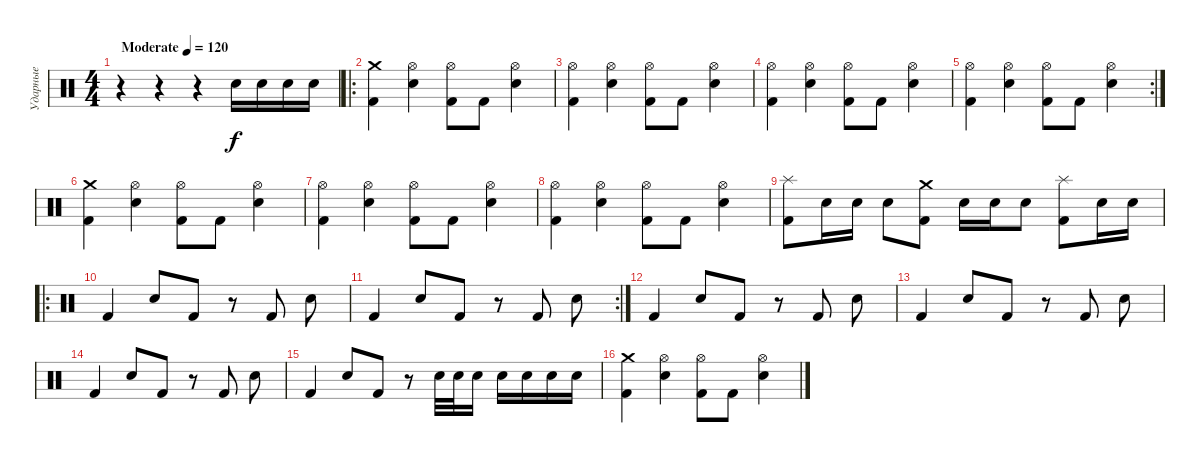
\track ("Ударные" "Ударные") {instrument percussion}
\staff {score}
\articulation defaults
\ts (4 4)
\tempo (120 "Moderate")
\clef neutral
\ks c
r.4{dy f} r.4 r.4 "Electric Snare (hit)".16 "Electric Snare (hit)".16 "Electric Snare (hit)".16 "Electric Snare (hit)".16 |
\ro
("Kick (hit) 2" "Crash medium (hit)").4 ("Electric Snare (hit)" "Hi-Hat (open)").4 ("Kick (hit) 2" "Hi-Hat (open)").8 "Kick (hit) 2".8 ("Electric Snare (hit)" "Hi-Hat (open)").4 |
("Kick (hit) 2" "Hi-Hat (open)").4 ("Electric Snare (hit)" "Hi-Hat (open)").4 ("Kick (hit) 2" "Hi-Hat (open)").8 "Kick (hit) 2".8 ("Electric Snare (hit)" "Hi-Hat (open)").4 |
("Kick (hit) 2" "Hi-Hat (open)").4 ("Electric Snare (hit)" "Hi-Hat (open)").4 ("Kick (hit) 2" "Hi-Hat (open)").8 "Kick (hit) 2".8 ("Electric Snare (hit)" "Hi-Hat (open)").4 |
\rc 2
("Kick (hit) 2" "Hi-Hat (open)").4 ("Electric Snare (hit)" "Hi-Hat (open)").4 ("Kick (hit) 2" "Hi-Hat (open)").8 "Kick (hit) 2".8 ("Electric Snare (hit)" "Hi-Hat (open)").4 |
("Kick (hit) 2" "Crash medium (hit)").4 ("Electric Snare (hit)" "Hi-Hat (open)").4 ("Kick (hit) 2" "Hi-Hat (open)").8 "Kick (hit) 2".8 ("Electric Snare (hit)" "Hi-Hat (open)").4 |
("Kick (hit) 2" "Hi-Hat (open)").4 ("Electric Snare (hit)" "Hi-Hat (open)").4 ("Kick (hit) 2" "Hi-Hat (open)").8 "Kick (hit) 2".8 ("Electric Snare (hit)" "Hi-Hat (open)").4 |
("Kick (hit) 2" "Hi-Hat (open)").4 ("Electric Snare (hit)" "Hi-Hat (open)").4 ("Kick (hit) 2" "Hi-Hat (open)").8 "Kick (hit) 2".8 ("Electric Snare (hit)" "Hi-Hat (open)").4 |
("Kick (hit) 2" "Splash (hit)").8 "Electric Snare (hit)".16 "Electric Snare (hit)".16 "Electric Snare (hit)".8 ("Kick (hit) 2" "Crash medium (hit)").8 "Electric Snare (hit)".16 "Electric Snare (hit)".16 "Electric Snare (hit)".8 ("Kick (hit) 2" "Splash (hit)").8 "Electric Snare (hit)".16 "Electric Snare (hit)".16 |
\ro "Kick (hit) 2".4 "Electric Snare (hit)".8 "Kick (hit) 2".8
r.8 "Kick (hit) 2".8 "Electric Snare (hit)".8 |
\rc 2 "Kick (hit) 2".4 "Electric Snare (hit)".8 "Kick (hit) 2".8
r.8 "Kick (hit) 2".8 "Electric Snare (hit)".8 |
"Kick (hit) 2".4 "Electric Snare (hit)".8 "Kick (hit) 2".8 r.8 "Kick (hit) 2".8 "Electric Snare (hit)".8 |
"Kick (hit) 2".4 "Electric Snare (hit)".8 "Kick (hit) 2".8 r.8 "Kick (hit) 2".8 "Electric Snare (hit)".8 |
"Kick (hit) 2".4 "Electric Snare (hit)".8 "Kick (hit) 2".8 r.8 "Kick (hit) 2".8 "Electric Snare (hit)".8 |
"Kick (hit) 2".4 "Electric Snare (hit)".8 "Kick (hit) 2".8 r.8 "Electric Snare (hit)".32 "Electric Snare (hit)".32 "Electric Snare (hit)".16 "Electric Snare (hit)".16 "Electric Snare (hit)".16 "Electric Snare (hit)".16 "Electric Snare (hit)".16 |
("Kick (hit) 2" "Crash medium (hit)").4 ("Electric Snare (hit)" "Hi-Hat (open)").4 ("Kick (hit) 2" "Hi-Hat (open)").8 "Kick (hit) 2".8 ("Electric Snare (hit)" "Hi-Hat (open)").4
